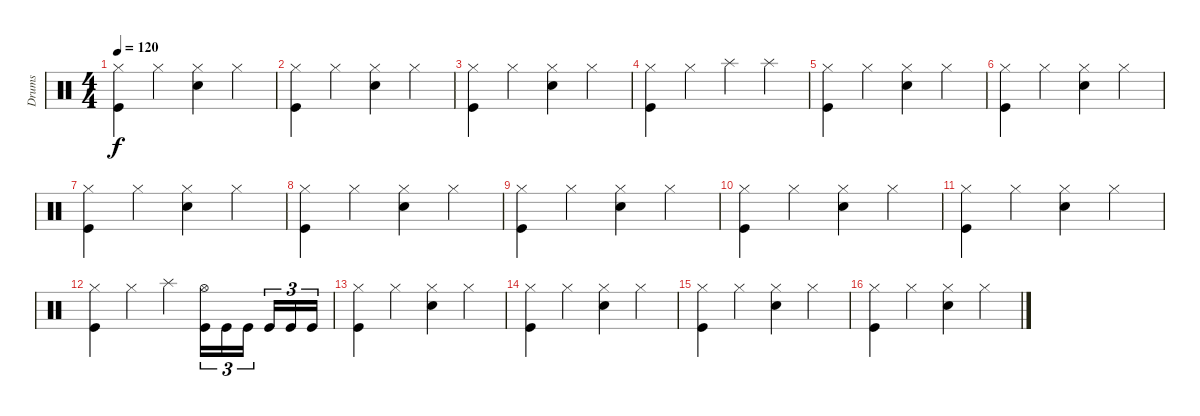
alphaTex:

\track ("Drums" "Drums") {instrument percussion}
\staff {score}
\articulation defaults
\ts (4 4)
\tempo 120
\clef neutral
\ks c
("Hi-Hat (closed)" "Kick (hit)").4{dy f} "Hi-Hat (closed)".4 ("Hi-Hat (closed)" "Snare (hit) 2").4 "Hi-Hat (closed)".4 |
("Hi-Hat (closed)" "Kick (hit)").4 "Hi-Hat (closed)".4 ("Hi-Hat (closed)" "Snare (hit) 2").4 "Hi-Hat (closed)".4 |
("Hi-Hat (closed)" "Kick (hit)").4 "Hi-Hat (closed)".4 ("Hi-Hat (closed)" "Snare (hit) 2").4 "Hi-Hat (closed)".4 |
("Hi-Hat (closed)" "Kick (hit)").4 "Hi-Hat (closed)".4 "Splash (hit)".4 "Splash (hit)".4 |
("Hi-Hat (closed)" "Kick (hit)").4 "Hi-Hat (closed)".4 ("Hi-Hat (closed)" "Snare (hit) 2").4 "Hi-Hat (closed)".4 |
("Hi-Hat (closed)" "Kick (hit)").4 "Hi-Hat (closed)".4 ("Hi-Hat (closed)" "Snare (hit) 2").4 "Hi-Hat (closed)".4 |
("Hi-Hat (closed)" "Kick (hit)").4 "Hi-Hat (closed)".4 ("Hi-Hat (closed)" "Snare (hit) 2").4 "Hi-Hat (closed)".4 |
("Hi-Hat (closed)" "Kick (hit)").4 "Hi-Hat (closed)".4 ("Hi-Hat (closed)" "Snare (hit) 2").4 "Hi-Hat (closed)".4 |
("Hi-Hat (closed)" "Kick (hit)").4 "Hi-Hat (closed)".4 ("Hi-Hat (closed)" "Snare (hit) 2").4 "Hi-Hat (closed)".4 |
("Hi-Hat (closed)" "Kick (hit)").4 "Hi-Hat (closed)".4 ("Hi-Hat (closed)" "Snare (hit) 2").4 "Hi-Hat (closed)".4 |
("Hi-Hat (closed)" "Kick (hit)").4 "Hi-Hat (closed)".4 ("Hi-Hat (closed)" "Snare (hit) 2").4 "Hi-Hat (closed)".4 |
("Hi-Hat (closed)" "Kick (hit)").4 "Hi-Hat (closed)".4 "Splash (hit)".4 ("Hi-Hat (open)" "Kick (hit)").16{tu (3 2)} "Kick (hit)".16{tu (3 2)} "Kick (hit)".16{tu (3 2)} "Kick (hit)".16{tu (3 2)} "Kick (hit)".16{tu (3 2)} "Kick (hit)".16{tu (3 2)} |
("Hi-Hat (closed)" "Kick (hit)").4 "Hi-Hat (closed)".4 ("Hi-Hat (closed)" "Snare (hit) 2").4 "Hi-Hat (closed)".4 |
("Hi-Hat (closed)" "Kick (hit)").4 "Hi-Hat (closed)".4 ("Hi-Hat (closed)" "Snare (hit) 2").4 "Hi-Hat (closed)".4 |
("Hi-Hat (closed)" "Kick (hit)").4 "Hi-Hat (closed)".4 ("Hi-Hat (closed)" "Snare (hit) 2").4 "Hi-Hat (closed)".4 |
("Hi-Hat (closed)" "Kick (hit)").4 "Hi-Hat (closed)".4 ("Hi-Hat (closed)" "Snare (hit) 2").4 "Hi-Hat (closed)".4
